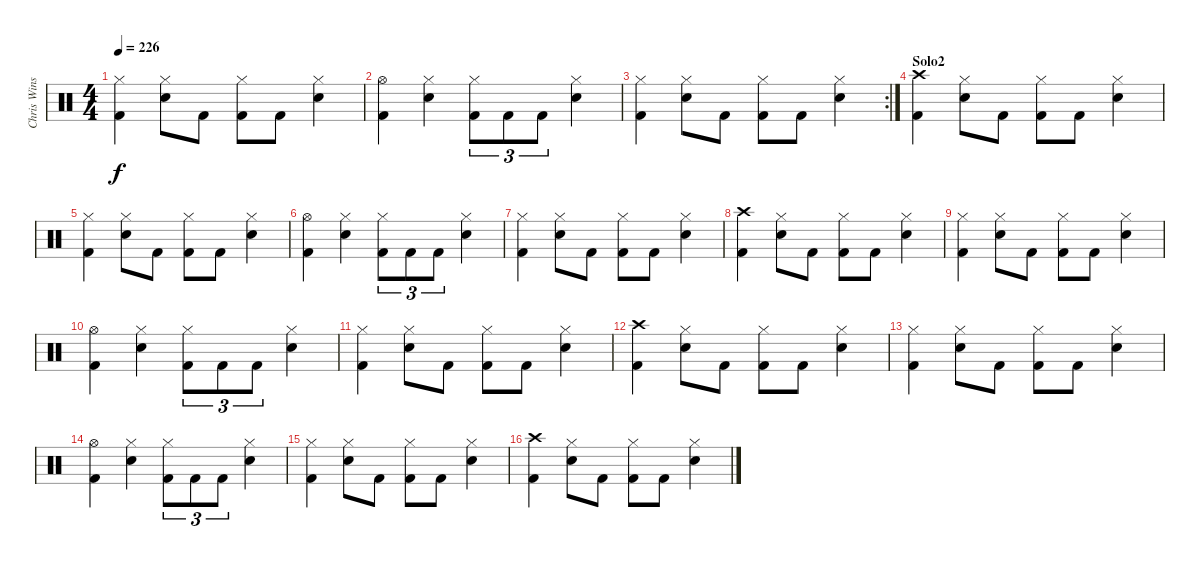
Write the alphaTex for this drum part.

\track ("Chris Winship (Drums)" "Chris Wins") {instrument percussion}
\staff {score}
\articulation defaults
\ts (4 4)
\tempo 226
\clef neutral
\ks c
("Hi-Hat (closed)" "Kick (hit) 2").4{dy f} ("Hi-Hat (closed)" "Electric Snare (hit)").8 "Kick (hit) 2".8 ("Hi-Hat (closed)" "Kick (hit) 2").8 "Kick (hit) 2".8 ("Hi-Hat (closed)" "Electric Snare (hit)").4 |
("Hi-Hat (open)" "Kick (hit) 2").4 ("Hi-Hat (closed)" "Electric Snare (hit)").4 ("Hi-Hat (closed)" "Kick (hit) 2").8{tu (3 2)} "Kick (hit) 2".8{tu (3 2)} "Kick (hit) 2".8{tu (3 2)} ("Hi-Hat (closed)" "Electric Snare (hit)").4 |
\rc 2
("Hi-Hat (closed)" "Kick (hit) 2").4 ("Hi-Hat (closed)" "Electric Snare (hit)").8 "Kick (hit) 2".8 ("Hi-Hat (closed)" "Kick (hit) 2").8 "Kick (hit) 2".8 ("Hi-Hat (closed)" "Electric Snare (hit)").4 |
\section ("" "Solo2")
("Crash high (hit)" "Kick (hit) 2").4 ("Hi-Hat (closed)" "Electric Snare (hit)").8 "Kick (hit) 2".8 ("Hi-Hat (closed)" "Kick (hit) 2").8 "Kick (hit) 2".8 ("Hi-Hat (closed)" "Electric Snare (hit)").4 |
("Hi-Hat (closed)" "Kick (hit) 2").4 ("Hi-Hat (closed)" "Electric Snare (hit)").8 "Kick (hit) 2".8 ("Hi-Hat (closed)" "Kick (hit) 2").8 "Kick (hit) 2".8 ("Hi-Hat (closed)" "Electric Snare (hit)").4 |
("Hi-Hat (open)" "Kick (hit) 2").4 ("Hi-Hat (closed)" "Electric Snare (hit)").4 ("Hi-Hat (closed)" "Kick (hit) 2").8{tu (3 2)} "Kick (hit) 2".8{tu (3 2)} "Kick (hit) 2".8{tu (3 2)} ("Hi-Hat (closed)" "Electric Snare (hit)").4 |
("Hi-Hat (closed)" "Kick (hit) 2").4 ("Hi-Hat (closed)" "Electric Snare (hit)").8 "Kick (hit) 2".8 ("Hi-Hat (closed)" "Kick (hit) 2").8 "Kick (hit) 2".8 ("Hi-Hat (closed)" "Electric Snare (hit)").4 |
("Crash high (hit)" "Kick (hit) 2").4 ("Hi-Hat (closed)" "Electric Snare (hit)").8 "Kick (hit) 2".8 ("Hi-Hat (closed)" "Kick (hit) 2").8 "Kick (hit) 2".8 ("Hi-Hat (closed)" "Electric Snare (hit)").4 |
("Hi-Hat (closed)" "Kick (hit) 2").4 ("Hi-Hat (closed)" "Electric Snare (hit)").8 "Kick (hit) 2".8 ("Hi-Hat (closed)" "Kick (hit) 2").8 "Kick (hit) 2".8 ("Hi-Hat (closed)" "Electric Snare (hit)").4 |
("Hi-Hat (open)" "Kick (hit) 2").4 ("Hi-Hat (closed)" "Electric Snare (hit)").4 ("Hi-Hat (closed)" "Kick (hit) 2").8{tu (3 2)} "Kick (hit) 2".8{tu (3 2)} "Kick (hit) 2".8{tu (3 2)} ("Hi-Hat (closed)" "Electric Snare (hit)").4 |
("Hi-Hat (closed)" "Kick (hit) 2").4 ("Hi-Hat (closed)" "Electric Snare (hit)").8 "Kick (hit) 2".8 ("Hi-Hat (closed)" "Kick (hit) 2").8 "Kick (hit) 2".8 ("Hi-Hat (closed)" "Electric Snare (hit)").4 |
("Crash high (hit)" "Kick (hit) 2").4 ("Hi-Hat (closed)" "Electric Snare (hit)").8 "Kick (hit) 2".8 ("Hi-Hat (closed)" "Kick (hit) 2").8 "Kick (hit) 2".8 ("Hi-Hat (closed)" "Electric Snare (hit)").4 |
("Hi-Hat (closed)" "Kick (hit) 2").4 ("Hi-Hat (closed)" "Electric Snare (hit)").8 "Kick (hit) 2".8 ("Hi-Hat (closed)" "Kick (hit) 2").8 "Kick (hit) 2".8 ("Hi-Hat (closed)" "Electric Snare (hit)").4 |
("Hi-Hat (open)" "Kick (hit) 2").4 ("Hi-Hat (closed)" "Electric Snare (hit)").4 ("Hi-Hat (closed)" "Kick (hit) 2").8{tu (3 2)} "Kick (hit) 2".8{tu (3 2)} "Kick (hit) 2".8{tu (3 2)} ("Hi-Hat (closed)" "Electric Snare (hit)").4 |
("Hi-Hat (closed)" "Kick (hit) 2").4 ("Hi-Hat (closed)" "Electric Snare (hit)").8 "Kick (hit) 2".8 ("Hi-Hat (closed)" "Kick (hit) 2").8 "Kick (hit) 2".8 ("Hi-Hat (closed)" "Electric Snare (hit)").4 |
("Crash high (hit)" "Kick (hit) 2").4 ("Hi-Hat (closed)" "Electric Snare (hit)").8 "Kick (hit) 2".8 ("Hi-Hat (closed)" "Kick (hit) 2").8 "Kick (hit) 2".8 ("Hi-Hat (closed)" "Electric Snare (hit)").4
